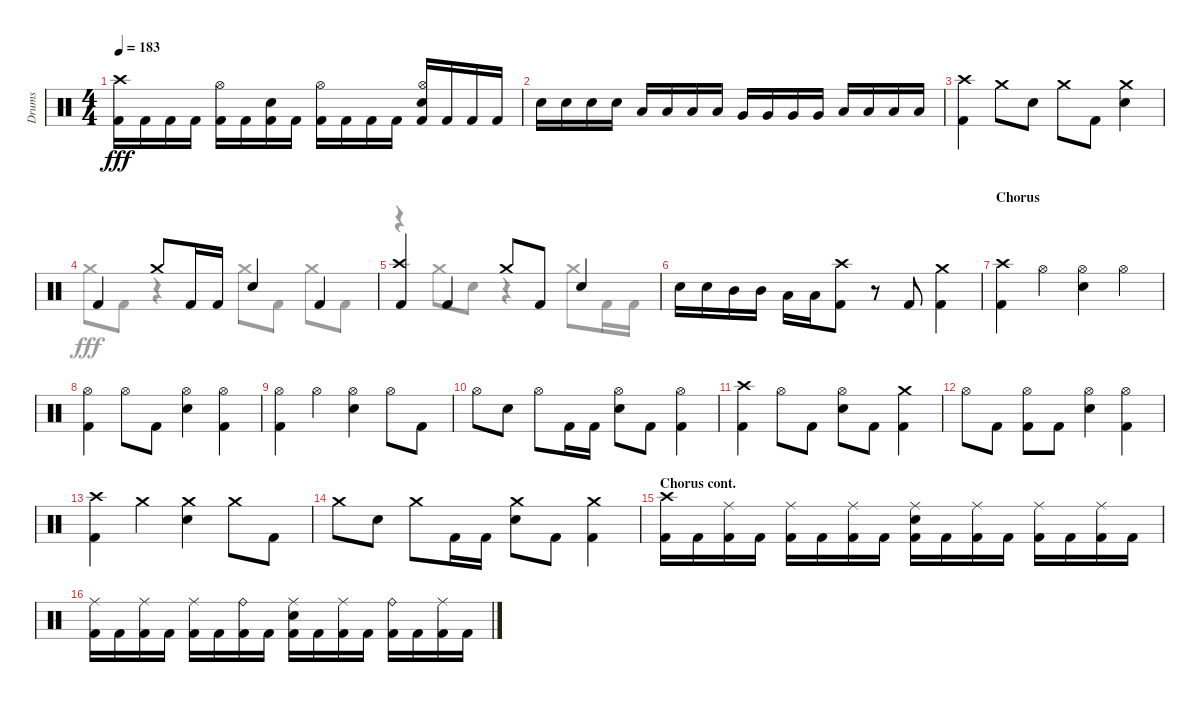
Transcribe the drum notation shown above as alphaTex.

\track ("Drums" "Drums") {instrument percussion}
\staff {score}
\articulation defaults
\voice
\ts (4 4)
\tempo 183
\clef neutral
\ks aminor
("Kick (hit) 2" "Crash high (hit)").16{dy fff} "Kick (hit) 2".16 "Kick (hit) 2".16 "Kick (hit) 2".16 ("Kick (hit) 2" "Hi-Hat (open)").16 "Kick (hit) 2".16 ("Kick (hit) 2" "Snare (hit) 2").16 "Kick (hit) 2".16 ("Hi-Hat (open)" "Kick (hit) 2").16 "Kick (hit) 2".16 "Kick (hit) 2".16 "Kick (hit) 2".16 ("Hi-Hat (open)" "Kick (hit) 2" "Snare (hit) 2").16 "Kick (hit) 2".16 "Kick (hit) 2".16 "Kick (hit) 2".16 |
"Hand Clap (hit)".16 "Hand Clap (hit)".16 "Hand Clap (hit)".16 "Hand Clap (hit)".16 "Low Tom (hit)".16 "Low Tom (hit)".16 "Low Tom (hit)".16 "Low Tom (hit)".16 "Very Low Tom (hit)".16 "Very Low Tom (hit)".16 "Very Low Tom (hit)".16 "Very Low Tom (hit)".16 "Low Floor Tom (hit)".16 "Low Floor Tom (hit)".16 "Low Floor Tom (hit)".16 "Low Floor Tom (hit)".16 |
("Kick (hit) 2" "Crash high (hit)").4 "Crash medium (hit)".8 "Snare (hit) 2".8 "Crash medium (hit)".8 "Kick (hit) 2".8 ("Crash medium (hit)" "Snare (hit) 2").4 |
"Kick (hit) 2".4 "Crash medium (hit)".8 "Kick (hit) 2".16 "Kick (hit) 2".16 "Snare (hit) 2".4 "Kick (hit) 2".4 |
("Crash high (hit)" "Kick (hit) 2").4 "Kick (hit) 2".4 "Crash medium (hit)".8 "Kick (hit) 2".8 "Snare (hit) 2".4 |
"Snare (hit) 2".16 "Snare (hit) 2".16 "Mid Tom (hit)".16 "Mid Tom (hit)".16 "Low Tom (hit)".16 "Low Tom (hit)".16 ("Kick (hit) 2" "Crash high (hit)").8 r.8 "Kick (hit) 2".8 ("Kick (hit) 2" "Crash medium (hit)").4 |
\section ("" "Chorus")
("Crash high (hit)" "Kick (hit) 2").4 "Hi-Hat (open)".4 ("Hi-Hat (open)" "Snare (hit) 2").4 "Hi-Hat (open)".4 |
("Kick (hit) 2" "Hi-Hat (open)").4 "Hi-Hat (open)".8 "Kick (hit) 2".8 ("Hi-Hat (open)" "Snare (hit) 2").4 ("Hi-Hat (open)" "Kick (hit) 2").4 |
("Hi-Hat (open)" "Kick (hit) 2").4 "Hi-Hat (open)".4 ("Hi-Hat (open)" "Snare (hit) 2").4 "Hi-Hat (open)".8 "Kick (hit) 2".8 |
"Hi-Hat (open)".8 "Snare (hit) 2".8 "Hi-Hat (open)".8 "Kick (hit) 2".16 "Kick (hit) 2".16 ("Hi-Hat (open)" "Snare (hit) 2").8 "Kick (hit) 2".8 ("Hi-Hat (open)" "Kick (hit) 2").4 |
("Crash high (hit)" "Kick (hit) 2").4 "Hi-Hat (open)".8 "Kick (hit) 2".8 ("Snare (hit) 2" "Hi-Hat (open)").8 "Kick (hit) 2".8 ("Kick (hit) 2" "Crash medium (hit)").4 |
"Hi-Hat (open)".8 "Kick (hit) 2".8 ("Hi-Hat (open)" "Kick (hit) 2").8 "Kick (hit) 2".8 ("Snare (hit) 2" "Hi-Hat (open)").4 ("Kick (hit) 2" "Hi-Hat (open)").4 |
("Crash high (hit)" "Kick (hit) 2").4 "Crash medium (hit)".4 ("Snare (hit) 2" "Crash medium (hit)").4 "Crash medium (hit)".8 "Kick (hit) 2".8 |
"Crash medium (hit)".8 "Snare (hit) 2".8 "Crash medium (hit)".8 "Kick (hit) 2".16 "Kick (hit) 2".16 ("Snare (hit) 2" "Crash medium (hit)").8 "Kick (hit) 2".8 ("Crash medium (hit)" "Kick (hit) 2").4 |
\section ("" "Chorus cont.")
("Crash high (hit)" "Kick (hit) 2").16 "Kick (hit) 2".16 ("Ride (middle)" "Kick (hit) 2").16 "Kick (hit) 2".16 ("Ride (middle)" "Kick (hit) 2").16 "Kick (hit) 2".16 ("Ride (middle)" "Kick (hit) 2").16 "Kick (hit) 2".16 ("Kick (hit) 2" "Ride (middle)" "Snare (hit) 2").16 "Kick (hit) 2".16 ("Ride (middle)" "Kick (hit) 2").16 "Kick (hit) 2".16 ("Ride (middle)" "Kick (hit) 2").16 "Kick (hit) 2".16 ("Kick (hit) 2" "Ride (middle)").16 "Kick (hit) 2".16 |
("Ride (middle)" "Kick (hit) 2").16 "Kick (hit) 2".16 ("Ride (middle)" "Kick (hit) 2").16 "Kick (hit) 2".16 ("Ride (middle)" "Kick (hit) 2").16 "Kick (hit) 2".16 ("Ride (bell)" "Kick (hit) 2").16 "Kick (hit) 2".16 ("Kick (hit) 2" "Snare (hit) 2" "Ride (middle)").16 "Kick (hit) 2".16 ("Ride (middle)" "Kick (hit) 2").16 "Kick (hit) 2".16 ("Ride (bell)" "Kick (hit) 2").16 "Kick (hit) 2".16 ("Kick (hit) 2" "Ride (middle)").16 "Kick (hit) 2".16
\voice
\clef neutral
\ottava regular
\simile none
\ks aminor
|
|
|
"Crash medium (hit)".8 "Kick (hit) 2".8 r.4 "Crash medium (hit)".8 "Kick (hit) 2".8 "Crash medium (hit)".8 "Kick (hit) 2".8 |
r.4 "Crash medium (hit)".8 "Snare (hit) 2".8 r.4 "Crash medium (hit)".8 "Kick (hit) 2".16 "Kick (hit) 2".16 |
|
|
|
|
|
|
|
|
|
|
